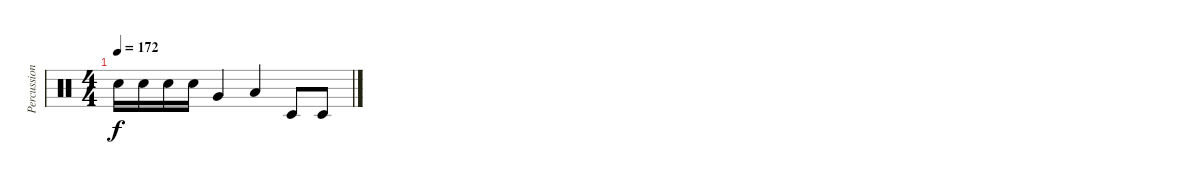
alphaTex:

\track ("Percussion" "Percussion") {instrument percussion}
\staff {score}
\articulation defaults
\ts (4 4)
\tempo 172
\clef neutral
\ks c "Snare (hit) 2".16{dy f} "Snare (hit) 2".16 "Snare (hit) 2".16 "Snare (hit) 2".16 "Very Low Tom (hit)".4 "Low Tom (hit)".4 "Timbale low (hit)".8 "Timbale low (hit)".8
